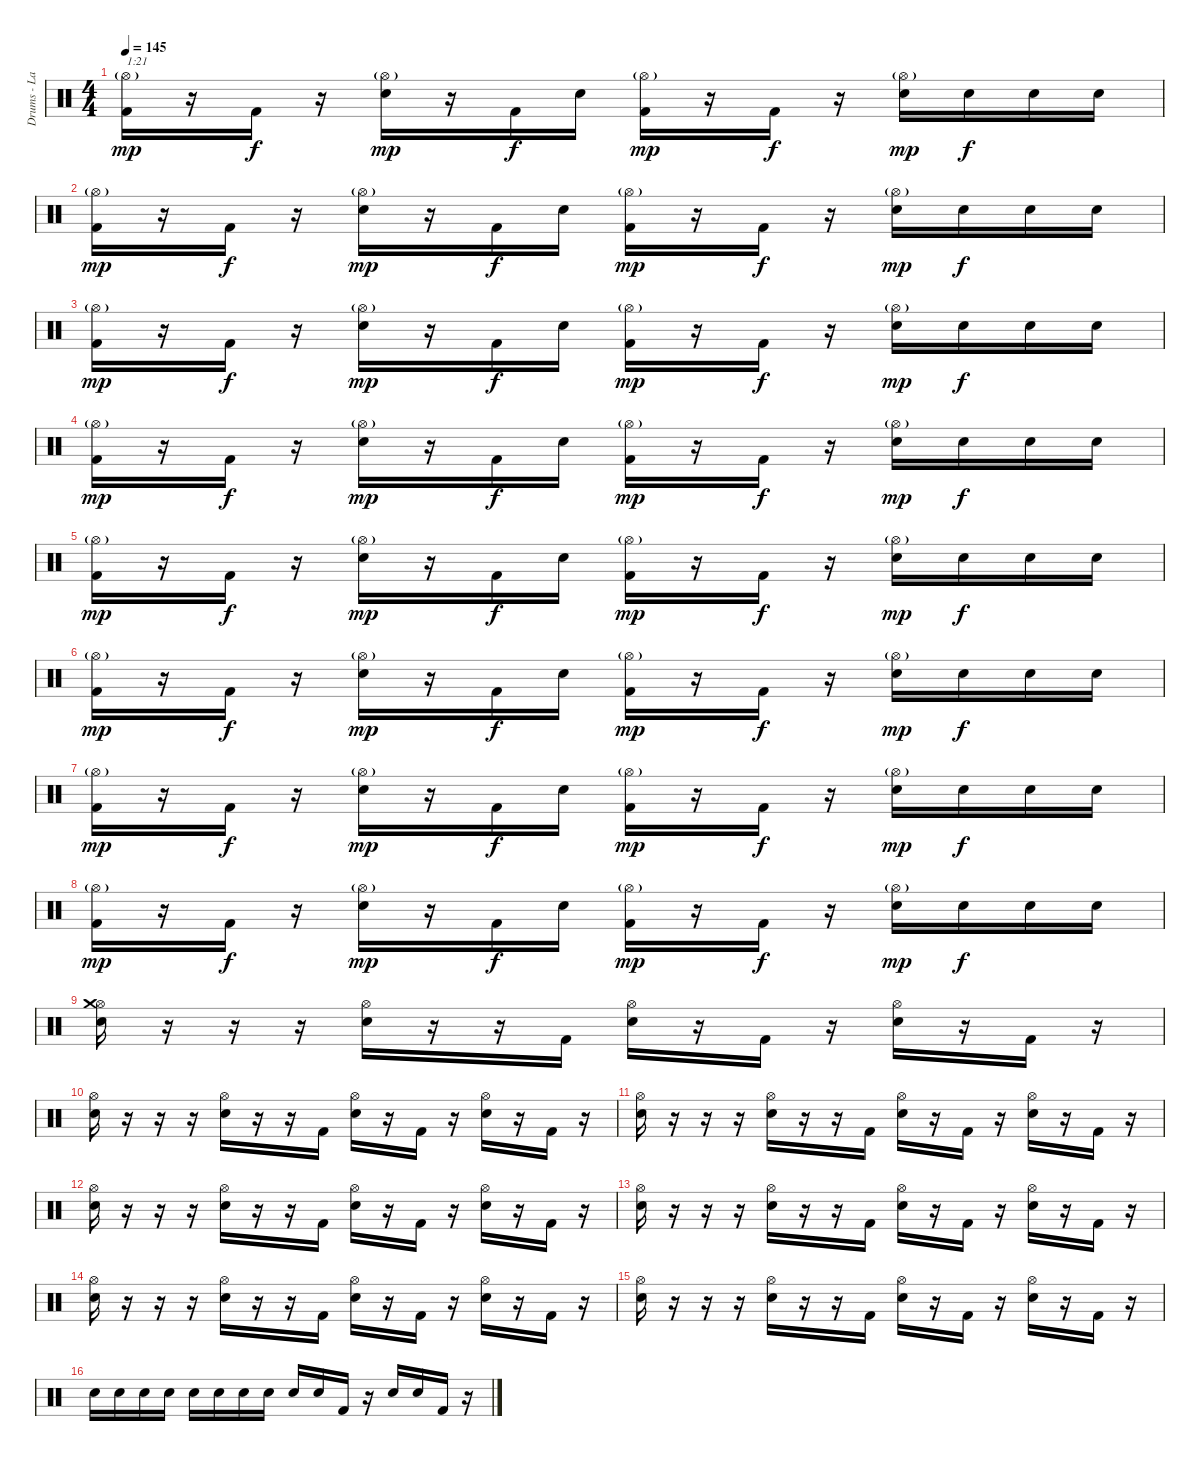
\track ("Drums - Larry Gorman" "Drums - La") {instrument percussion}
\staff {score}
\articulation defaults
\ts (4 4)
\tempo 145
\clef neutral
\ks c
("Hi-Hat (open)"{g} "Kick (hit) 2").16{txt "1:21" dy mp} r.16 "Kick (hit) 2".16{dy f} r.16 ("Hi-Hat (open)"{g} "Electric Snare (hit)").16{dy mp} r.16 "Kick (hit) 2".16{dy f} "Electric Snare (hit)".16 ("Hi-Hat (open)"{g} "Kick (hit) 2").16{dy mp} r.16 "Kick (hit) 2".16{dy f} r.16 ("Hi-Hat (open)"{g} "Electric Snare (hit)").16{dy mp} "Electric Snare (hit)".16{dy f} "Electric Snare (hit)".16 "Electric Snare (hit)".16 |
("Hi-Hat (open)"{g} "Kick (hit) 2").16{dy mp} r.16 "Kick (hit) 2".16{dy f} r.16 ("Hi-Hat (open)"{g} "Electric Snare (hit)").16{dy mp} r.16 "Kick (hit) 2".16{dy f} "Electric Snare (hit)".16 ("Hi-Hat (open)"{g} "Kick (hit) 2").16{dy mp} r.16 "Kick (hit) 2".16{dy f} r.16 ("Hi-Hat (open)"{g} "Electric Snare (hit)").16{dy mp} "Electric Snare (hit)".16{dy f} "Electric Snare (hit)".16 "Electric Snare (hit)".16 |
("Hi-Hat (open)"{g} "Kick (hit) 2").16{dy mp} r.16 "Kick (hit) 2".16{dy f} r.16 ("Hi-Hat (open)"{g} "Electric Snare (hit)").16{dy mp} r.16 "Kick (hit) 2".16{dy f} "Electric Snare (hit)".16 ("Hi-Hat (open)"{g} "Kick (hit) 2").16{dy mp} r.16 "Kick (hit) 2".16{dy f} r.16 ("Hi-Hat (open)"{g} "Electric Snare (hit)").16{dy mp} "Electric Snare (hit)".16{dy f} "Electric Snare (hit)".16 "Electric Snare (hit)".16 |
("Hi-Hat (open)"{g} "Kick (hit) 2").16{dy mp} r.16 "Kick (hit) 2".16{dy f} r.16 ("Hi-Hat (open)"{g} "Electric Snare (hit)").16{dy mp} r.16 "Kick (hit) 2".16{dy f} "Electric Snare (hit)".16 ("Hi-Hat (open)"{g} "Kick (hit) 2").16{dy mp} r.16 "Kick (hit) 2".16{dy f} r.16 ("Hi-Hat (open)"{g} "Electric Snare (hit)").16{dy mp} "Electric Snare (hit)".16{dy f} "Electric Snare (hit)".16 "Electric Snare (hit)".16 |
("Hi-Hat (open)"{g} "Kick (hit) 2").16{dy mp} r.16 "Kick (hit) 2".16{dy f} r.16 ("Hi-Hat (open)"{g} "Electric Snare (hit)").16{dy mp} r.16 "Kick (hit) 2".16{dy f} "Electric Snare (hit)".16 ("Hi-Hat (open)"{g} "Kick (hit) 2").16{dy mp} r.16 "Kick (hit) 2".16{dy f} r.16 ("Hi-Hat (open)"{g} "Electric Snare (hit)").16{dy mp} "Electric Snare (hit)".16{dy f} "Electric Snare (hit)".16 "Electric Snare (hit)".16 |
("Hi-Hat (open)"{g} "Kick (hit) 2").16{dy mp} r.16 "Kick (hit) 2".16{dy f} r.16 ("Hi-Hat (open)"{g} "Electric Snare (hit)").16{dy mp} r.16 "Kick (hit) 2".16{dy f} "Electric Snare (hit)".16 ("Hi-Hat (open)"{g} "Kick (hit) 2").16{dy mp} r.16 "Kick (hit) 2".16{dy f} r.16 ("Hi-Hat (open)"{g} "Electric Snare (hit)").16{dy mp} "Electric Snare (hit)".16{dy f} "Electric Snare (hit)".16 "Electric Snare (hit)".16 |
("Hi-Hat (open)"{g} "Kick (hit) 2").16{dy mp} r.16 "Kick (hit) 2".16{dy f} r.16 ("Hi-Hat (open)"{g} "Electric Snare (hit)").16{dy mp} r.16 "Kick (hit) 2".16{dy f} "Electric Snare (hit)".16 ("Hi-Hat (open)"{g} "Kick (hit) 2").16{dy mp} r.16 "Kick (hit) 2".16{dy f} r.16 ("Hi-Hat (open)"{g} "Electric Snare (hit)").16{dy mp} "Electric Snare (hit)".16{dy f} "Electric Snare (hit)".16 "Electric Snare (hit)".16 |
("Hi-Hat (open)"{g} "Kick (hit) 2").16{dy mp} r.16 "Kick (hit) 2".16{dy f} r.16 ("Hi-Hat (open)"{g} "Electric Snare (hit)").16{dy mp} r.16 "Kick (hit) 2".16{dy f} "Electric Snare (hit)".16 ("Hi-Hat (open)"{g} "Kick (hit) 2").16{dy mp} r.16 "Kick (hit) 2".16{dy f} r.16 ("Hi-Hat (open)"{g} "Electric Snare (hit)").16{dy mp} "Electric Snare (hit)".16{dy f} "Electric Snare (hit)".16 "Electric Snare (hit)".16 |
("Hi-Hat (open)" "Crash medium (hit)" "Electric Snare (hit)").16 r.16 r.16 r.16 ("Hi-Hat (open)" "Electric Snare (hit)").16 r.16 r.16 "Kick (hit) 2".16 ("Hi-Hat (open)" "Electric Snare (hit)").16 r.16 "Kick (hit) 2".16 r.16 ("Hi-Hat (open)" "Electric Snare (hit)").16 r.16 "Kick (hit) 2".16 r.16 |
("Hi-Hat (open)" "Electric Snare (hit)").16 r.16 r.16 r.16 ("Hi-Hat (open)" "Electric Snare (hit)").16 r.16 r.16 "Kick (hit) 2".16 ("Hi-Hat (open)" "Electric Snare (hit)").16 r.16 "Kick (hit) 2".16 r.16 ("Hi-Hat (open)" "Electric Snare (hit)").16 r.16 "Kick (hit) 2".16 r.16 |
("Hi-Hat (open)" "Electric Snare (hit)").16 r.16 r.16 r.16 ("Hi-Hat (open)" "Electric Snare (hit)").16 r.16 r.16 "Kick (hit) 2".16 ("Hi-Hat (open)" "Electric Snare (hit)").16 r.16 "Kick (hit) 2".16 r.16 ("Hi-Hat (open)" "Electric Snare (hit)").16 r.16 "Kick (hit) 2".16 r.16 |
("Hi-Hat (open)" "Electric Snare (hit)").16 r.16 r.16 r.16 ("Hi-Hat (open)" "Electric Snare (hit)").16 r.16 r.16 "Kick (hit) 2".16 ("Hi-Hat (open)" "Electric Snare (hit)").16 r.16 "Kick (hit) 2".16 r.16 ("Hi-Hat (open)" "Electric Snare (hit)").16 r.16 "Kick (hit) 2".16 r.16 |
("Hi-Hat (open)" "Electric Snare (hit)").16 r.16 r.16 r.16 ("Hi-Hat (open)" "Electric Snare (hit)").16 r.16 r.16 "Kick (hit) 2".16 ("Hi-Hat (open)" "Electric Snare (hit)").16 r.16 "Kick (hit) 2".16 r.16 ("Hi-Hat (open)" "Electric Snare (hit)").16 r.16 "Kick (hit) 2".16 r.16 |
("Hi-Hat (open)" "Electric Snare (hit)").16 r.16 r.16 r.16 ("Hi-Hat (open)" "Electric Snare (hit)").16 r.16 r.16 "Kick (hit) 2".16 ("Hi-Hat (open)" "Electric Snare (hit)").16 r.16 "Kick (hit) 2".16 r.16 ("Hi-Hat (open)" "Electric Snare (hit)").16 r.16 "Kick (hit) 2".16 r.16 |
("Hi-Hat (open)" "Electric Snare (hit)").16 r.16 r.16 r.16 ("Hi-Hat (open)" "Electric Snare (hit)").16 r.16 r.16 "Kick (hit) 2".16 ("Hi-Hat (open)" "Electric Snare (hit)").16 r.16 "Kick (hit) 2".16 r.16 ("Hi-Hat (open)" "Electric Snare (hit)").16 r.16 "Kick (hit) 2".16 r.16 |
"Electric Snare (hit)".16 "Electric Snare (hit)".16 "Electric Snare (hit)".16 "Electric Snare (hit)".16 "Electric Snare (hit)".16 "Electric Snare (hit)".16 "Electric Snare (hit)".16 "Electric Snare (hit)".16 "Electric Snare (hit)".16 "Electric Snare (hit)".16 "Kick (hit) 2".16 r.16 "Electric Snare (hit)".16 "Electric Snare (hit)".16 "Kick (hit) 2".16 r.16
